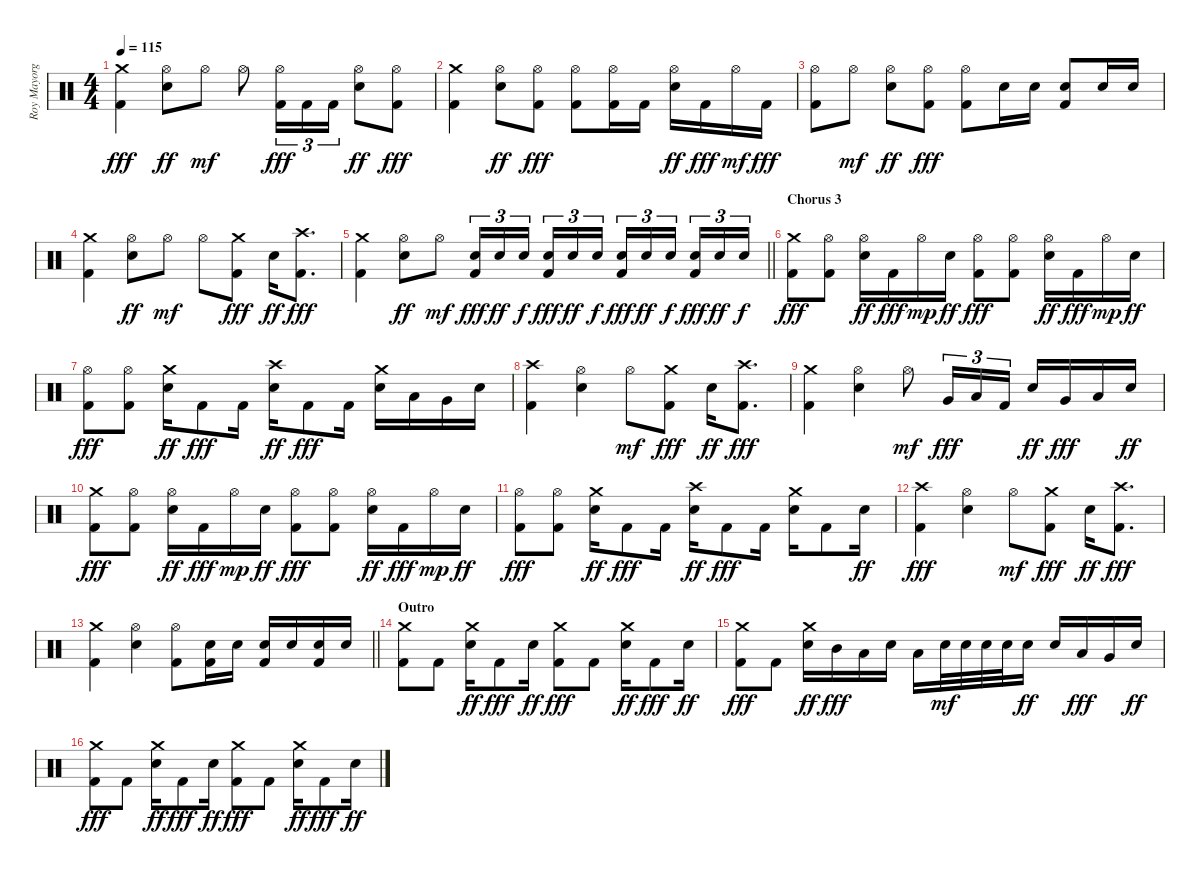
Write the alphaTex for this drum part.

\track ("Roy Mayorga" "Roy Mayorg") {instrument percussion}
\staff {score}
\articulation defaults
\ts (4 4)
\tempo 115
\clef neutral
\ks c
("Crash medium (hit)" "Kick (hit) 2").4{dy fff} ("Hi-Hat (open)" "Electric Snare (hit)").8{dy ff} "Hi-Hat (open)".8{dy mf} "Hi-Hat (open)".8 ("Hi-Hat (open)" "Kick (hit) 2").16{tu (3 2) dy fff} "Kick (hit) 2".16{tu (3 2)} "Kick (hit) 2".16{tu (3 2)} ("Hi-Hat (open)" "Electric Snare (hit)").8{dy ff} ("Hi-Hat (open)" "Kick (hit) 2").8{dy fff} |
("Crash medium (hit)" "Kick (hit) 2").4 ("Hi-Hat (open)" "Electric Snare (hit)").8{dy ff} ("Hi-Hat (open)" "Kick (hit) 2").8{dy fff} ("Hi-Hat (open)" "Kick (hit) 2").8 ("Hi-Hat (open)" "Kick (hit) 2").16 "Kick (hit) 2".16 ("Hi-Hat (open)" "Electric Snare (hit)").16{dy ff} "Kick (hit) 2".16{dy fff} "Hi-Hat (open)".16{dy mf} "Kick (hit) 2".16{dy fff} |
("Hi-Hat (open)" "Kick (hit) 2").8 "Hi-Hat (open)".8{dy mf} ("Hi-Hat (open)" "Electric Snare (hit)").8{dy ff} ("Hi-Hat (open)" "Kick (hit) 2").8{dy fff} ("Hi-Hat (open)" "Kick (hit) 2").8 "Electric Snare (hit)".16 "Electric Snare (hit)".16 ("Electric Snare (hit)" "Kick (hit) 2").8 "Electric Snare (hit)".16 "Electric Snare (hit)".16 |
("Crash medium (hit)" "Kick (hit) 2").4 ("Hi-Hat (open)" "Electric Snare (hit)").8{dy ff} "Hi-Hat (open)".8{dy mf} "Hi-Hat (open)".8 ("Crash medium (hit)" "Kick (hit) 2").8{dy fff} "Electric Snare (hit)".16{dy ff} ("Crash high (hit)" "Kick (hit) 2").8{d dy fff} |
\barLineRight lightlight
("Crash medium (hit)" "Kick (hit) 2").4 ("Hi-Hat (open)" "Electric Snare (hit)").8{dy ff} "Hi-Hat (open)".8{dy mf} ("Electric Snare (hit)" "Kick (hit) 2").16{tu (3 2) dy fff} "Electric Snare (hit)".16{tu (3 2) dy ff} "Electric Snare (hit)".16{tu (3 2) dy f beam splitsecondary} ("Electric Snare (hit)" "Kick (hit) 2").16{tu (3 2) dy fff} "Electric Snare (hit)".16{tu (3 2) dy ff} "Electric Snare (hit)".16{tu (3 2) dy f} ("Electric Snare (hit)" "Kick (hit) 2").16{tu (3 2) dy fff} "Electric Snare (hit)".16{tu (3 2) dy ff} "Electric Snare (hit)".16{tu (3 2) dy f beam splitsecondary} ("Electric Snare (hit)" "Kick (hit) 2").16{tu (3 2) dy fff} "Electric Snare (hit)".16{tu (3 2) dy ff} "Electric Snare (hit)".16{tu (3 2) dy f} |
\section ("" "Chorus 3")
("Crash medium (hit)" "Kick (hit) 2").8{dy fff} ("Hi-Hat (open)" "Kick (hit) 2").8 ("Hi-Hat (open)" "Electric Snare (hit)").16{dy ff} "Kick (hit) 2".16{dy fff} "Hi-Hat (open)".16{dy mp} "Electric Snare (hit)".16{dy ff} ("Hi-Hat (open)" "Kick (hit) 2").8{dy fff} ("Hi-Hat (open)" "Kick (hit) 2").8 ("Hi-Hat (open)" "Electric Snare (hit)").16{dy ff} "Kick (hit) 2".16{dy fff} "Hi-Hat (open)".16{dy mp} "Electric Snare (hit)".16{dy ff} |
("Hi-Hat (open)" "Kick (hit) 2").8{dy fff} ("Hi-Hat (open)" "Kick (hit) 2").8 ("Crash medium (hit)" "Electric Snare (hit)").16{dy ff} "Kick (hit) 2".8{dy fff} "Kick (hit) 2".16 ("Crash high (hit)" "Electric Snare (hit)").16{dy ff} "Kick (hit) 2".8{dy fff} "Kick (hit) 2".16 ("Crash medium (hit)" "Electric Snare (hit)").16 "Low Tom (hit)".16 "Very Low Tom (hit)".16 "Electric Snare (hit)".16 |
("Crash high (hit)" "Kick (hit) 2").4 ("Hi-Hat (open)" "Electric Snare (hit)").4 "Hi-Hat (open)".8{dy mf} ("Crash medium (hit)" "Kick (hit) 2").8{dy fff} "Electric Snare (hit)".16{dy ff} ("Crash high (hit)" "Kick (hit) 2").8{d dy fff} |
("Crash medium (hit)" "Kick (hit) 2").4 ("Hi-Hat (open)" "Electric Snare (hit)").4 "Hi-Hat (open)".8{dy mf} "Very Low Tom (hit)".16{tu (3 2) dy fff} "Low Floor Tom (hit)".16{tu (3 2)} "Kick (hit) 2".16{tu (3 2)} "Electric Snare (hit)".16{dy ff} "Very Low Tom (hit)".16{dy fff} "Low Floor Tom (hit)".16 "Electric Snare (hit)".16{dy ff} |
("Crash medium (hit)" "Kick (hit) 2").8{dy fff} ("Hi-Hat (open)" "Kick (hit) 2").8 ("Hi-Hat (open)" "Electric Snare (hit)").16{dy ff} "Kick (hit) 2".16{dy fff} "Hi-Hat (open)".16{dy mp} "Electric Snare (hit)".16{dy ff} ("Hi-Hat (open)" "Kick (hit) 2").8{dy fff} ("Hi-Hat (open)" "Kick (hit) 2").8 ("Hi-Hat (open)" "Electric Snare (hit)").16{dy ff} "Kick (hit) 2".16{dy fff} "Hi-Hat (open)".16{dy mp} "Electric Snare (hit)".16{dy ff} |
("Hi-Hat (open)" "Kick (hit) 2").8{dy fff} ("Hi-Hat (open)" "Kick (hit) 2").8 ("Crash medium (hit)" "Electric Snare (hit)").16{dy ff} "Kick (hit) 2".8{dy fff} "Kick (hit) 2".16 ("Crash high (hit)" "Electric Snare (hit)").16{dy ff} "Kick (hit) 2".8{dy fff} "Kick (hit) 2".16 ("Crash medium (hit)" "Electric Snare (hit)").16 "Kick (hit) 2".8 "Electric Snare (hit)".16{dy ff} |
("Crash high (hit)" "Kick (hit) 2").4{dy fff} ("Hi-Hat (open)" "Electric Snare (hit)").4 "Hi-Hat (open)".8{dy mf} ("Crash medium (hit)" "Kick (hit) 2").8{dy fff} "Electric Snare (hit)".16{dy ff} ("Crash high (hit)" "Kick (hit) 2").8{d dy fff} |
\barLineRight lightlight
("Crash medium (hit)" "Kick (hit) 2").4 ("Hi-Hat (open)" "Electric Snare (hit)").4 ("Hi-Hat (open)" "Kick (hit) 2").8 ("Electric Snare (hit)" "Kick (hit) 2").16 "Electric Snare (hit)".16 ("Electric Snare (hit)" "Kick (hit) 2").16 "Electric Snare (hit)".16 ("Electric Snare (hit)" "Kick (hit) 2").16 "Electric Snare (hit)".16 |
\section ("" "Outro")
("Crash medium (hit)" "Kick (hit) 2").8 "Kick (hit) 2".8 ("Crash medium (hit)" "Electric Snare (hit)").16{dy ff} "Kick (hit) 2".8{dy fff} "Electric Snare (hit)".16{dy ff} ("Crash medium (hit)" "Kick (hit) 2").8{dy fff} "Kick (hit) 2".8 ("Crash medium (hit)" "Electric Snare (hit)").16{dy ff} "Kick (hit) 2".8{dy fff} "Electric Snare (hit)".16{dy ff} |
("Crash medium (hit)" "Kick (hit) 2").8{dy fff} "Kick (hit) 2".8 ("Crash medium (hit)" "Electric Snare (hit)").16{dy ff} "Mid Tom (hit)".16{dy fff} "Low Tom (hit)".16 "Electric Snare (hit)".16 "Low Tom (hit)".16 "Electric Snare (hit)".32{dy mf} "Electric Snare (hit)".32 "Electric Snare (hit)".32 "Electric Snare (hit)".32 "Electric Snare (hit)".16{dy ff} "Electric Snare (hit)".16 "Low Tom (hit)".16{dy fff} "Very Low Tom (hit)".16 "Electric Snare (hit)".16{dy ff} |
("Crash medium (hit)" "Kick (hit) 2").8{dy fff} "Kick (hit) 2".8 ("Crash medium (hit)" "Electric Snare (hit)").16{dy ff} "Kick (hit) 2".8{dy fff} "Electric Snare (hit)".16{dy ff} ("Crash medium (hit)" "Kick (hit) 2").8{dy fff} "Kick (hit) 2".8 ("Crash medium (hit)" "Electric Snare (hit)").16{dy ff} "Kick (hit) 2".8{dy fff} "Electric Snare (hit)".16{dy ff}
